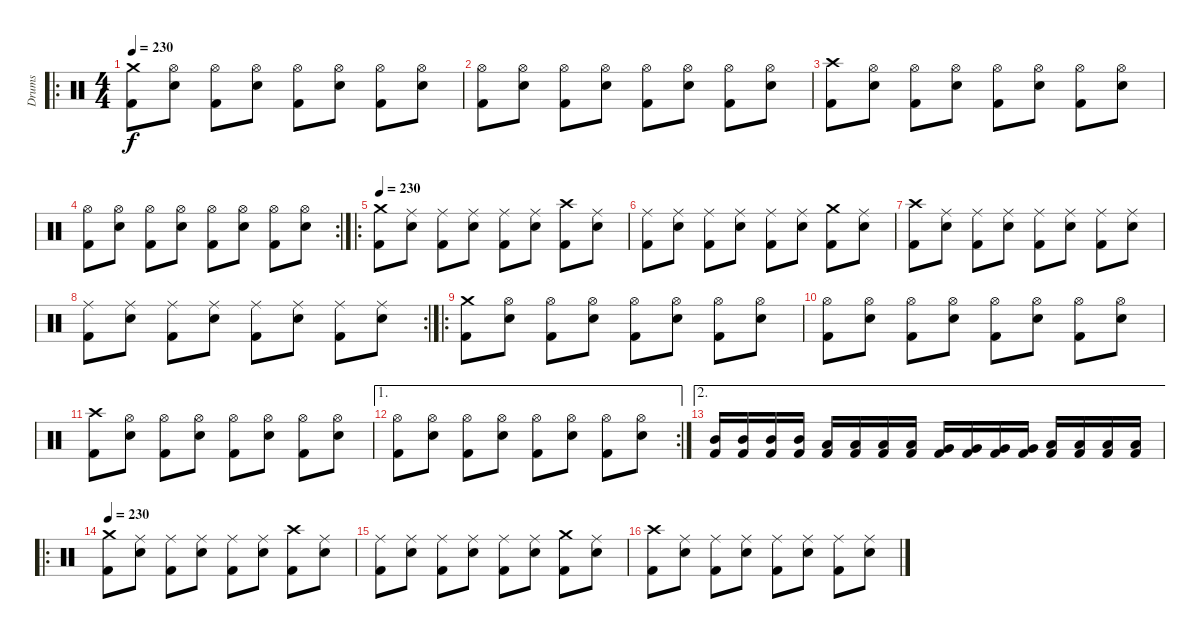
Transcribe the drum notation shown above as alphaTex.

\track ("Drums" "Drums") {instrument percussion}
\staff {score}
\articulation defaults
\ro
\ts (4 4)
\tempo 230
\clef neutral
\ks c
("Crash medium (hit)" "Kick (hit) 2").8{dy f} ("Hi-Hat (open)" "Snare (hit) 2").8 ("Hi-Hat (open)" "Kick (hit) 2").8 ("Hi-Hat (open)" "Snare (hit) 2").8 ("Hi-Hat (open)" "Kick (hit) 2").8 ("Hi-Hat (open)" "Snare (hit) 2").8 ("Hi-Hat (open)" "Kick (hit) 2").8 ("Hi-Hat (open)" "Snare (hit) 2").8 |
("Hi-Hat (open)" "Kick (hit) 2").8 ("Hi-Hat (open)" "Snare (hit) 2").8 ("Hi-Hat (open)" "Kick (hit) 2").8 ("Hi-Hat (open)" "Snare (hit) 2").8 ("Hi-Hat (open)" "Kick (hit) 2").8 ("Hi-Hat (open)" "Snare (hit) 2").8 ("Hi-Hat (open)" "Kick (hit) 2").8 ("Hi-Hat (open)" "Snare (hit) 2").8 |
("Crash high (hit)" "Kick (hit) 2").8 ("Hi-Hat (open)" "Snare (hit) 2").8 ("Hi-Hat (open)" "Kick (hit) 2").8 ("Hi-Hat (open)" "Snare (hit) 2").8 ("Hi-Hat (open)" "Kick (hit) 2").8 ("Hi-Hat (open)" "Snare (hit) 2").8 ("Hi-Hat (open)" "Kick (hit) 2").8 ("Hi-Hat (open)" "Snare (hit) 2").8 |
\rc 2
("Hi-Hat (open)" "Kick (hit) 2").8 ("Hi-Hat (open)" "Snare (hit) 2").8 ("Hi-Hat (open)" "Kick (hit) 2").8 ("Hi-Hat (open)" "Snare (hit) 2").8 ("Hi-Hat (open)" "Kick (hit) 2").8 ("Hi-Hat (open)" "Snare (hit) 2").8 ("Hi-Hat (open)" "Kick (hit) 2").8 ("Hi-Hat (open)" "Snare (hit) 2").8 |
\ro
\tempo 230
("Crash medium (hit)" "Kick (hit) 2").8 ("Ride (middle)" "Snare (hit) 2").8 ("Ride (middle)" "Kick (hit) 2").8 ("Ride (middle)" "Snare (hit) 2").8 ("Ride (middle)" "Kick (hit) 2").8 ("Ride (middle)" "Snare (hit) 2").8 ("Crash high (hit)" "Kick (hit) 2").8 ("Ride (middle)" "Snare (hit) 2").8 |
("Ride (middle)" "Kick (hit) 2").8 ("Ride (middle)" "Snare (hit) 2").8 ("Ride (middle)" "Kick (hit) 2").8 ("Ride (middle)" "Snare (hit) 2").8 ("Ride (middle)" "Kick (hit) 2").8 ("Ride (middle)" "Snare (hit) 2").8 ("Crash medium (hit)" "Kick (hit) 2").8 ("Ride (middle)" "Snare (hit) 2").8 |
("Crash high (hit)" "Kick (hit) 2").8 ("Ride (middle)" "Snare (hit) 2").8 ("Ride (middle)" "Kick (hit) 2").8 ("Ride (middle)" "Snare (hit) 2").8 ("Ride (middle)" "Kick (hit) 2").8 ("Ride (middle)" "Snare (hit) 2").8 ("Ride (middle)" "Kick (hit) 2").8 ("Ride (middle)" "Snare (hit) 2").8 |
\rc 2
("Ride (middle)" "Kick (hit) 2").8 ("Ride (middle)" "Snare (hit) 2").8 ("Ride (middle)" "Kick (hit) 2").8 ("Ride (middle)" "Snare (hit) 2").8 ("Ride (middle)" "Kick (hit) 2").8 ("Ride (middle)" "Snare (hit) 2").8 ("Ride (middle)" "Kick (hit) 2").8 ("Ride (middle)" "Snare (hit) 2").8 |
\ro
("Crash medium (hit)" "Kick (hit) 2").8 ("Hi-Hat (open)" "Snare (hit) 2").8 ("Hi-Hat (open)" "Kick (hit) 2").8 ("Hi-Hat (open)" "Snare (hit) 2").8 ("Hi-Hat (open)" "Kick (hit) 2").8 ("Hi-Hat (open)" "Snare (hit) 2").8 ("Hi-Hat (open)" "Kick (hit) 2").8 ("Hi-Hat (open)" "Snare (hit) 2").8 |
("Hi-Hat (open)" "Kick (hit) 2").8 ("Hi-Hat (open)" "Snare (hit) 2").8 ("Hi-Hat (open)" "Kick (hit) 2").8 ("Hi-Hat (open)" "Snare (hit) 2").8 ("Hi-Hat (open)" "Kick (hit) 2").8 ("Hi-Hat (open)" "Snare (hit) 2").8 ("Hi-Hat (open)" "Kick (hit) 2").8 ("Hi-Hat (open)" "Snare (hit) 2").8 |
("Crash high (hit)" "Kick (hit) 2").8 ("Hi-Hat (open)" "Snare (hit) 2").8 ("Hi-Hat (open)" "Kick (hit) 2").8 ("Hi-Hat (open)" "Snare (hit) 2").8 ("Hi-Hat (open)" "Kick (hit) 2").8 ("Hi-Hat (open)" "Snare (hit) 2").8 ("Hi-Hat (open)" "Kick (hit) 2").8 ("Hi-Hat (open)" "Snare (hit) 2").8 |
\ae 1
\rc 2
("Hi-Hat (open)" "Kick (hit) 2").8 ("Hi-Hat (open)" "Snare (hit) 2").8 ("Hi-Hat (open)" "Kick (hit) 2").8 ("Hi-Hat (open)" "Snare (hit) 2").8 ("Hi-Hat (open)" "Kick (hit) 2").8 ("Hi-Hat (open)" "Snare (hit) 2").8 ("Hi-Hat (open)" "Kick (hit) 2").8 ("Hi-Hat (open)" "Snare (hit) 2").8 |
\ae 2
("Mid Tom (hit)" "Kick (hit) 2").16 ("Mid Tom (hit)" "Kick (hit) 2").16 ("Mid Tom (hit)" "Kick (hit) 2").16 ("Mid Tom (hit)" "Kick (hit) 2").16 ("Low Tom (hit)" "Kick (hit) 2").16 ("Low Tom (hit)" "Kick (hit) 2").16 ("Low Tom (hit)" "Kick (hit) 2").16 ("Low Tom (hit)" "Kick (hit) 2").16 ("Very Low Tom (hit)" "Kick (hit) 2").16 ("Very Low Tom (hit)" "Kick (hit) 2").16 ("Very Low Tom (hit)" "Kick (hit) 2").16 ("Very Low Tom (hit)" "Kick (hit) 2").16 ("Low Floor Tom (hit)" "Kick (hit) 2").16 ("Low Floor Tom (hit)" "Kick (hit) 2").16 ("Low Floor Tom (hit)" "Kick (hit) 2").16 ("Low Floor Tom (hit)" "Kick (hit) 2").16 |
\ro
\tempo 230
("Crash medium (hit)" "Kick (hit) 2").8 ("Ride (middle)" "Snare (hit) 2").8 ("Ride (middle)" "Kick (hit) 2").8 ("Ride (middle)" "Snare (hit) 2").8 ("Ride (middle)" "Kick (hit) 2").8 ("Ride (middle)" "Snare (hit) 2").8 ("Crash high (hit)" "Kick (hit) 2").8 ("Ride (middle)" "Snare (hit) 2").8 |
("Ride (middle)" "Kick (hit) 2").8 ("Ride (middle)" "Snare (hit) 2").8 ("Ride (middle)" "Kick (hit) 2").8 ("Ride (middle)" "Snare (hit) 2").8 ("Ride (middle)" "Kick (hit) 2").8 ("Ride (middle)" "Snare (hit) 2").8 ("Crash medium (hit)" "Kick (hit) 2").8 ("Ride (middle)" "Snare (hit) 2").8 |
("Crash high (hit)" "Kick (hit) 2").8 ("Ride (middle)" "Snare (hit) 2").8 ("Ride (middle)" "Kick (hit) 2").8 ("Ride (middle)" "Snare (hit) 2").8 ("Ride (middle)" "Kick (hit) 2").8 ("Ride (middle)" "Snare (hit) 2").8 ("Ride (middle)" "Kick (hit) 2").8 ("Ride (middle)" "Snare (hit) 2").8
